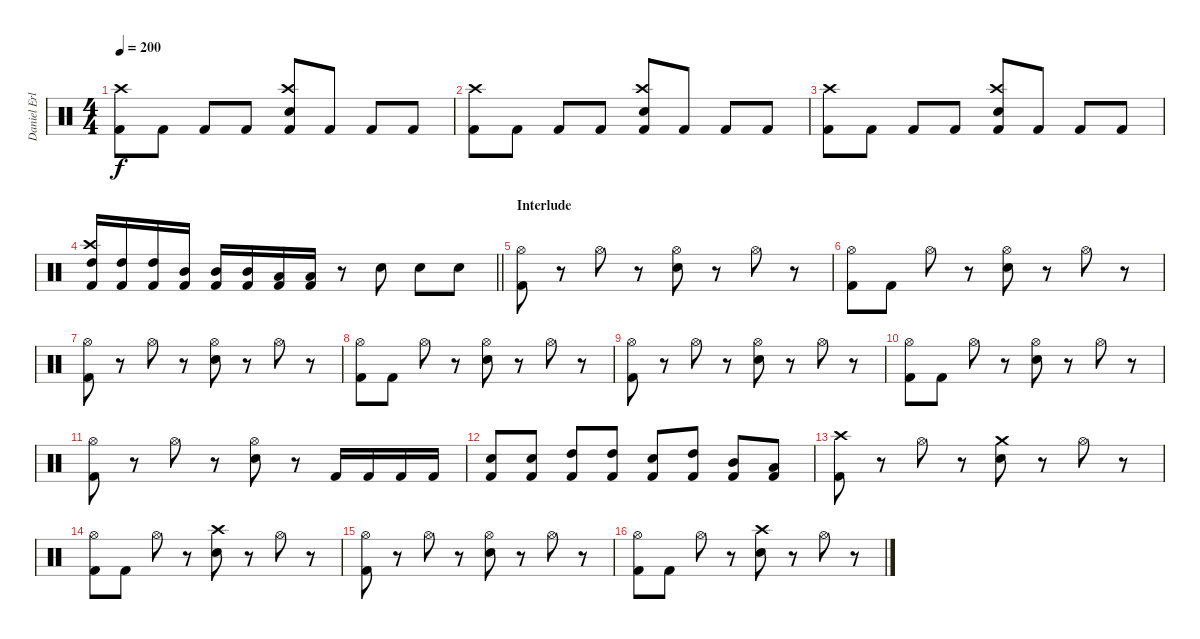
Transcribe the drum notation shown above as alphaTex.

\track ("Daniel Erlandsson" "Daniel Erl") {instrument percussion}
\staff {score}
\articulation defaults
\ts (4 4)
\tempo 200
\clef neutral
\ks c
("Kick (hit) 2" "Crash high (hit)").8{dy f} "Kick (hit) 2".8 "Kick (hit) 2".8 "Kick (hit) 2".8 ("Kick (hit) 2" "Snare (hit) 2" "Crash high (hit)").8 "Kick (hit) 2".8 "Kick (hit) 2".8 "Kick (hit) 2".8 |
("Kick (hit) 2" "Crash high (hit)").8 "Kick (hit) 2".8 "Kick (hit) 2".8 "Kick (hit) 2".8 ("Kick (hit) 2" "Snare (hit) 2" "Crash high (hit)").8 "Kick (hit) 2".8 "Kick (hit) 2".8 "Kick (hit) 2".8 |
("Kick (hit) 2" "Crash high (hit)").8 "Kick (hit) 2".8 "Kick (hit) 2".8 "Kick (hit) 2".8 ("Kick (hit) 2" "Snare (hit) 2" "Crash high (hit)").8 "Kick (hit) 2".8 "Kick (hit) 2".8 "Kick (hit) 2".8 |
\barLineRight lightlight
("Kick (hit) 2" "High Tom (hit)" "Crash high (hit)").16 ("Kick (hit) 2" "High Tom (hit)").16 ("Kick (hit) 2" "High Tom (hit)").16 ("Kick (hit) 2" "Mid Tom (hit)").16 ("Kick (hit) 2" "Mid Tom (hit)").16 ("Kick (hit) 2" "Mid Tom (hit)").16 ("Kick (hit) 2" "Low Tom (hit)").16 ("Kick (hit) 2" "Low Tom (hit)").16 r.8 "Snare (hit) 2".8 "Snare (hit) 2".8 "Snare (hit) 2".8 |
\section ("" "Interlude")
("Kick (hit) 2" "Hi-Hat (open)").8 r.8 "Hi-Hat (open)".8 r.8 ("Snare (hit) 2" "Hi-Hat (open)").8 r.8 "Hi-Hat (open)".8 r.8 |
("Kick (hit) 2" "Hi-Hat (open)").8 "Kick (hit) 2".8 "Hi-Hat (open)".8 r.8 ("Snare (hit) 2" "Hi-Hat (open)").8 r.8 "Hi-Hat (open)".8 r.8 |
("Kick (hit) 2" "Hi-Hat (open)").8 r.8 "Hi-Hat (open)".8 r.8 ("Snare (hit) 2" "Hi-Hat (open)").8 r.8 "Hi-Hat (open)".8 r.8 |
("Kick (hit) 2" "Hi-Hat (open)").8 "Kick (hit) 2".8 "Hi-Hat (open)".8 r.8 ("Snare (hit) 2" "Hi-Hat (open)").8 r.8 "Hi-Hat (open)".8 r.8 |
("Kick (hit) 2" "Hi-Hat (open)").8 r.8 "Hi-Hat (open)".8 r.8 ("Snare (hit) 2" "Hi-Hat (open)").8 r.8 "Hi-Hat (open)".8 r.8 |
("Kick (hit) 2" "Hi-Hat (open)").8 "Kick (hit) 2".8 "Hi-Hat (open)".8 r.8 ("Snare (hit) 2" "Hi-Hat (open)").8 r.8 "Hi-Hat (open)".8 r.8 |
("Kick (hit) 2" "Hi-Hat (open)").8 r.8 "Hi-Hat (open)".8 r.8 ("Snare (hit) 2" "Hi-Hat (open)").8 r.8 "Kick (hit) 2".16 "Kick (hit) 2".16 "Kick (hit) 2".16 "Kick (hit) 2".16 |
("Kick (hit) 2" "Snare (hit) 2").8 ("Kick (hit) 2" "Snare (hit) 2").8 ("Kick (hit) 2" "High Tom (hit)").8 ("Kick (hit) 2" "High Tom (hit)").8 ("Kick (hit) 2" "Snare (hit) 2").8 ("Kick (hit) 2" "High Tom (hit)").8 ("Kick (hit) 2" "Mid Tom (hit)").8 ("Kick (hit) 2" "Low Tom (hit)").8 |
("Kick (hit) 2" "Crash high (hit)").8 r.8 "Hi-Hat (open)".8 r.8 ("Snare (hit) 2" "Crash medium (hit)").8 r.8 "Hi-Hat (open)".8 r.8 |
("Kick (hit) 2" "Hi-Hat (open)").8 "Kick (hit) 2".8 "Hi-Hat (open)".8 r.8 ("Snare (hit) 2" "Crash high (hit)").8 r.8 "Hi-Hat (open)".8 r.8 |
("Kick (hit) 2" "Hi-Hat (open)").8 r.8 "Hi-Hat (open)".8 r.8 ("Snare (hit) 2" "Hi-Hat (open)").8 r.8 "Hi-Hat (open)".8 r.8 |
("Kick (hit) 2" "Hi-Hat (open)").8 "Kick (hit) 2".8 "Hi-Hat (open)".8 r.8 ("Snare (hit) 2" "Crash high (hit)").8 r.8 "Hi-Hat (open)".8 r.8
